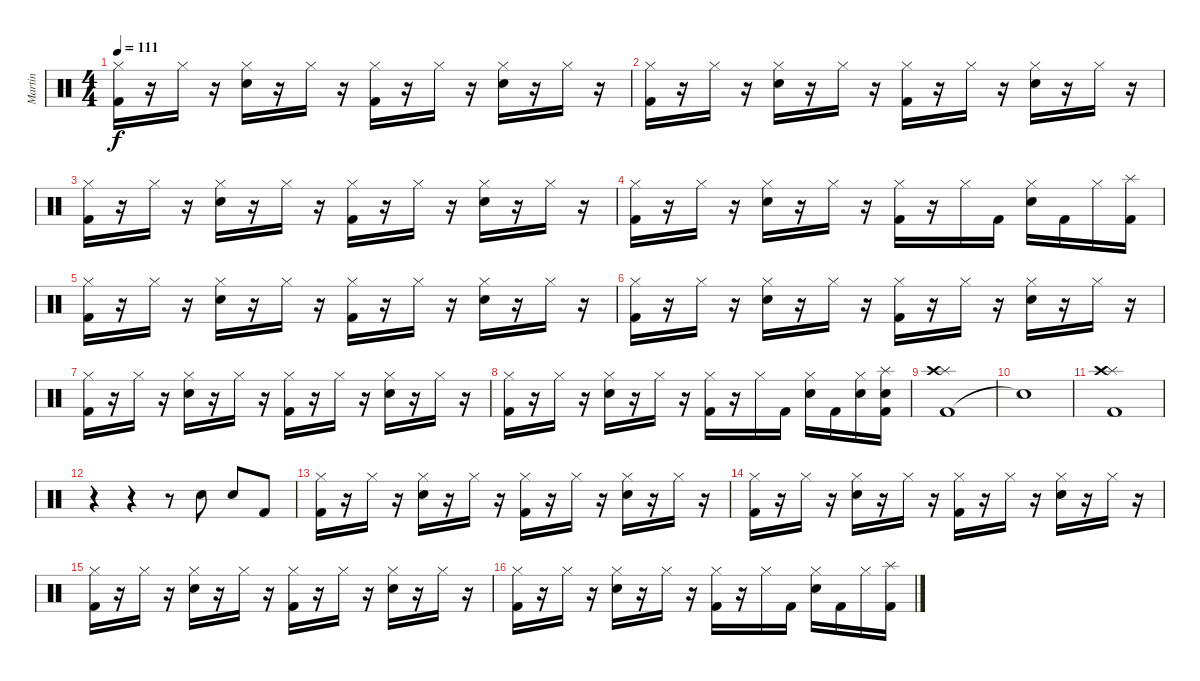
\track ("Martin" "Martin") {instrument percussion}
\staff {score}
\articulation defaults
\ts (4 4)
\tempo 111
\clef neutral
\ks c
("Kick (hit) 2" "Hi-Hat (closed)").16{dy f} r.16 "Hi-Hat (closed)".16 r.16 ("Electric Snare (hit)" "Hi-Hat (closed)").16 r.16 "Hi-Hat (closed)".16 r.16 ("Kick (hit) 2" "Hi-Hat (closed)").16 r.16 "Hi-Hat (closed)".16 r.16 ("Electric Snare (hit)" "Hi-Hat (closed)").16 r.16 "Hi-Hat (closed)".16 r.16 |
("Kick (hit) 2" "Hi-Hat (closed)").16 r.16 "Hi-Hat (closed)".16 r.16 ("Electric Snare (hit)" "Hi-Hat (closed)").16 r.16 "Hi-Hat (closed)".16 r.16 ("Kick (hit) 2" "Hi-Hat (closed)").16 r.16 "Hi-Hat (closed)".16 r.16 ("Electric Snare (hit)" "Hi-Hat (closed)").16 r.16 "Hi-Hat (closed)".16 r.16 |
("Kick (hit) 2" "Hi-Hat (closed)").16 r.16 "Hi-Hat (closed)".16 r.16 ("Electric Snare (hit)" "Hi-Hat (closed)").16 r.16 "Hi-Hat (closed)".16 r.16 ("Kick (hit) 2" "Hi-Hat (closed)").16 r.16 "Hi-Hat (closed)".16 r.16 ("Electric Snare (hit)" "Hi-Hat (closed)").16 r.16 "Hi-Hat (closed)".16 r.16 |
("Kick (hit) 2" "Hi-Hat (closed)").16 r.16 "Hi-Hat (closed)".16 r.16 ("Electric Snare (hit)" "Hi-Hat (closed)").16 r.16 "Hi-Hat (closed)".16 r.16 ("Kick (hit) 2" "Hi-Hat (closed)").16 r.16 "Hi-Hat (closed)".16 "Kick (hit) 2".16 ("Electric Snare (hit)" "Hi-Hat (closed)").16 "Kick (hit) 2".16 "Hi-Hat (closed)".16 ("Kick (hit) 2" "Splash (hit)").16 |
("Kick (hit) 2" "Hi-Hat (closed)").16 r.16 "Hi-Hat (closed)".16 r.16 ("Electric Snare (hit)" "Hi-Hat (closed)").16 r.16 "Hi-Hat (closed)".16 r.16 ("Kick (hit) 2" "Hi-Hat (closed)").16 r.16 "Hi-Hat (closed)".16 r.16 ("Electric Snare (hit)" "Hi-Hat (closed)").16 r.16 "Hi-Hat (closed)".16 r.16 |
("Kick (hit) 2" "Hi-Hat (closed)").16 r.16 "Hi-Hat (closed)".16 r.16 ("Electric Snare (hit)" "Hi-Hat (closed)").16 r.16 "Hi-Hat (closed)".16 r.16 ("Kick (hit) 2" "Hi-Hat (closed)").16 r.16 "Hi-Hat (closed)".16 r.16 ("Electric Snare (hit)" "Hi-Hat (closed)").16 r.16 "Hi-Hat (closed)".16 r.16 |
("Kick (hit) 2" "Hi-Hat (closed)").16 r.16 "Hi-Hat (closed)".16 r.16 ("Electric Snare (hit)" "Hi-Hat (closed)").16 r.16 "Hi-Hat (closed)".16 r.16 ("Kick (hit) 2" "Hi-Hat (closed)").16 r.16 "Hi-Hat (closed)".16 r.16 ("Electric Snare (hit)" "Hi-Hat (closed)").16 r.16 "Hi-Hat (closed)".16 r.16 |
("Kick (hit) 2" "Hi-Hat (closed)").16 r.16 "Hi-Hat (closed)".16 r.16 ("Electric Snare (hit)" "Hi-Hat (closed)").16 r.16 "Hi-Hat (closed)".16 r.16 ("Kick (hit) 2" "Hi-Hat (closed)").16 r.16 "Hi-Hat (closed)".16 "Kick (hit) 2".16 ("Electric Snare (hit)" "Hi-Hat (closed)").16 "Kick (hit) 2".16 ("Electric Snare (hit)" "Hi-Hat (closed)").16 ("Kick (hit) 2" "Electric Snare (hit)" "Splash (hit)").16 |
("Kick (hit) 2" "Splash (hit)" "Crash high (hit)").1 |
"Snare (hit)"{t}.1 |
("Kick (hit) 2" "Splash (hit)" "Crash high (hit)").1 |
r.4 r.4 r.8 "Electric Snare (hit)".8 "Electric Snare (hit)".8 "Kick (hit) 2".8 |
("Kick (hit) 2" "Hi-Hat (closed)").16 r.16 "Hi-Hat (closed)".16 r.16 ("Electric Snare (hit)" "Hi-Hat (closed)").16 r.16 "Hi-Hat (closed)".16 r.16 ("Kick (hit) 2" "Hi-Hat (closed)").16 r.16 "Hi-Hat (closed)".16 r.16 ("Electric Snare (hit)" "Hi-Hat (closed)").16 r.16 "Hi-Hat (closed)".16 r.16 |
("Kick (hit) 2" "Hi-Hat (closed)").16 r.16 "Hi-Hat (closed)".16 r.16 ("Electric Snare (hit)" "Hi-Hat (closed)").16 r.16 "Hi-Hat (closed)".16 r.16 ("Kick (hit) 2" "Hi-Hat (closed)").16 r.16 "Hi-Hat (closed)".16 r.16 ("Electric Snare (hit)" "Hi-Hat (closed)").16 r.16 "Hi-Hat (closed)".16 r.16 |
("Kick (hit) 2" "Hi-Hat (closed)").16 r.16 "Hi-Hat (closed)".16 r.16 ("Electric Snare (hit)" "Hi-Hat (closed)").16 r.16 "Hi-Hat (closed)".16 r.16 ("Kick (hit) 2" "Hi-Hat (closed)").16 r.16 "Hi-Hat (closed)".16 r.16 ("Electric Snare (hit)" "Hi-Hat (closed)").16 r.16 "Hi-Hat (closed)".16 r.16 |
("Kick (hit) 2" "Hi-Hat (closed)").16 r.16 "Hi-Hat (closed)".16 r.16 ("Electric Snare (hit)" "Hi-Hat (closed)").16 r.16 "Hi-Hat (closed)".16 r.16 ("Kick (hit) 2" "Hi-Hat (closed)").16 r.16 "Hi-Hat (closed)".16 "Kick (hit) 2".16 ("Electric Snare (hit)" "Hi-Hat (closed)").16 "Kick (hit) 2".16 "Hi-Hat (closed)".16 ("Kick (hit) 2" "Splash (hit)").16
